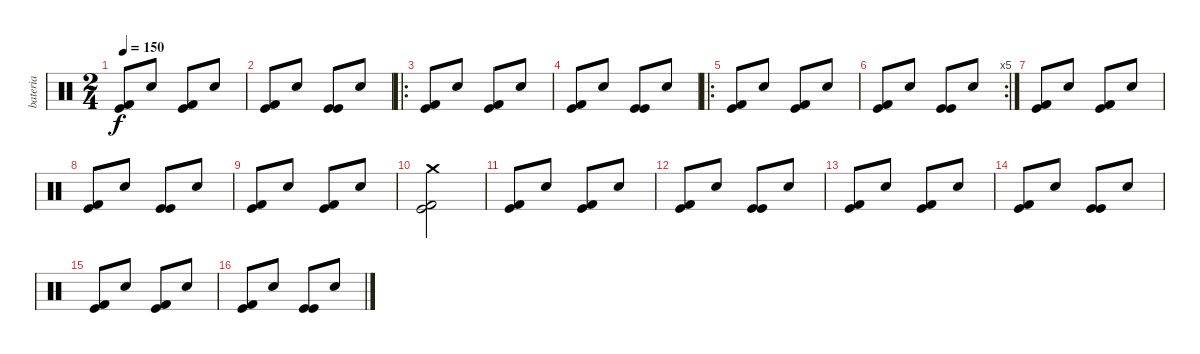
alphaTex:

\track ("bateria" "bateria") {instrument percussion}
\staff {score}
\articulation defaults
\ts (2 4)
\tempo 150
\clef neutral
\ks c
("Kick (hit) 2" "Kick (hit)").8{dy f} "Electric Snare (hit)".8 ("Kick (hit) 2" "Kick (hit)").8 "Electric Snare (hit)".8 |
("Kick (hit) 2" "Kick (hit)").8 "Electric Snare (hit)".8 ("Kick (hit)" "Kick (hit)").8 "Electric Snare (hit)".8 |
\ro
("Kick (hit) 2" "Kick (hit)").8 "Electric Snare (hit)".8 ("Kick (hit) 2" "Kick (hit)").8 "Electric Snare (hit)".8 |
("Kick (hit) 2" "Kick (hit)").8 "Electric Snare (hit)".8 ("Kick (hit)" "Kick (hit)").8 "Electric Snare (hit)".8 |
\ro
("Kick (hit) 2" "Kick (hit)").8 "Electric Snare (hit)".8 ("Kick (hit) 2" "Kick (hit)").8 "Electric Snare (hit)".8 |
\rc 5
("Kick (hit) 2" "Kick (hit)").8 "Electric Snare (hit)".8 ("Kick (hit)" "Kick (hit)").8 "Electric Snare (hit)".8 |
("Kick (hit) 2" "Kick (hit)").8 "Electric Snare (hit)".8 ("Kick (hit) 2" "Kick (hit)").8 "Electric Snare (hit)".8 |
("Kick (hit) 2" "Kick (hit)").8 "Electric Snare (hit)".8 ("Kick (hit)" "Kick (hit)").8 "Electric Snare (hit)".8 |
("Kick (hit) 2" "Kick (hit)").8 "Electric Snare (hit)".8 ("Kick (hit) 2" "Kick (hit)").8 "Electric Snare (hit)".8 |
("Crash medium (hit)" "Kick (hit) 2" "Kick (hit)").2 |
("Kick (hit) 2" "Kick (hit)").8 "Electric Snare (hit)".8 ("Kick (hit) 2" "Kick (hit)").8 "Electric Snare (hit)".8 |
("Kick (hit) 2" "Kick (hit)").8 "Electric Snare (hit)".8 ("Kick (hit)" "Kick (hit)").8 "Electric Snare (hit)".8 |
("Kick (hit) 2" "Kick (hit)").8 "Electric Snare (hit)".8 ("Kick (hit) 2" "Kick (hit)").8 "Electric Snare (hit)".8 |
("Kick (hit) 2" "Kick (hit)").8 "Electric Snare (hit)".8 ("Kick (hit)" "Kick (hit)").8 "Electric Snare (hit)".8 |
("Kick (hit) 2" "Kick (hit)").8 "Electric Snare (hit)".8 ("Kick (hit) 2" "Kick (hit)").8 "Electric Snare (hit)".8 |
("Kick (hit) 2" "Kick (hit)").8 "Electric Snare (hit)".8 ("Kick (hit)" "Kick (hit)").8 "Electric Snare (hit)".8
